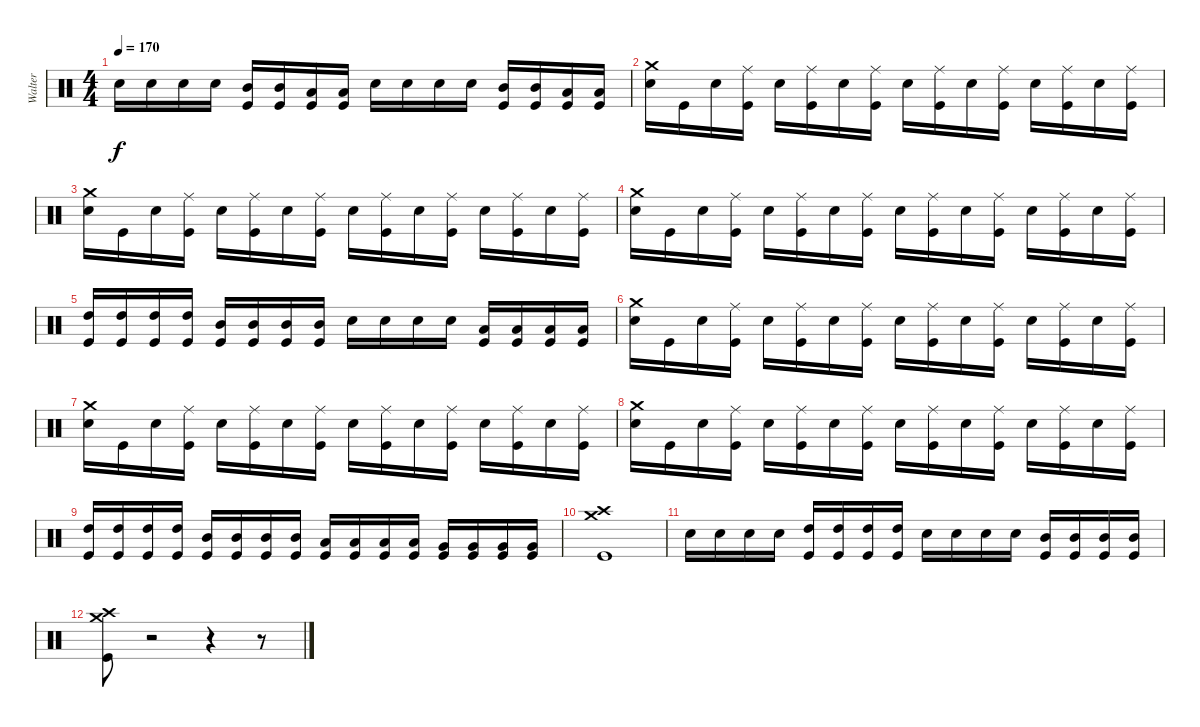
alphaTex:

\track ("Walter" "Walter") {instrument percussion}
\staff {score}
\articulation defaults
\ts (4 4)
\tempo 170
\clef neutral
\ks c "Electric Snare (hit)".16{dy f} "Electric Snare (hit)".16 "Electric Snare (hit)".16 "Electric Snare (hit)".16
("Mid Tom (hit)" "Kick (hit)").16 ("Mid Tom (hit)" "Kick (hit)").16 ("Low Tom (hit)" "Kick (hit)").16 ("Low Tom (hit)" "Kick (hit)").16 "Electric Snare (hit)".16 "Electric Snare (hit)".16 "Electric Snare (hit)".16 "Electric Snare (hit)".16 ("Mid Tom (hit)" "Kick (hit)").16 ("Mid Tom (hit)" "Kick (hit)").16 ("Low Tom (hit)" "Kick (hit)").16 ("Low Tom (hit)" "Kick (hit)").16 |
("Crash medium (hit)" "Electric Snare (hit)").16 "Kick (hit)".16 "Electric Snare (hit)".16 ("Ride (middle)" "Kick (hit)").16 "Electric Snare (hit)".16 ("Ride (middle)" "Kick (hit)").16 "Electric Snare (hit)".16 ("Ride (middle)" "Kick (hit)").16 "Electric Snare (hit)".16 ("Ride (middle)" "Kick (hit)").16 "Electric Snare (hit)".16 ("Ride (middle)" "Kick (hit)").16 "Electric Snare (hit)".16 ("Ride (middle)" "Kick (hit)").16 "Electric Snare (hit)".16 ("Ride (middle)" "Kick (hit)").16 |
("Crash medium (hit)" "Electric Snare (hit)").16 "Kick (hit)".16 "Electric Snare (hit)".16 ("Ride (middle)" "Kick (hit)").16 "Electric Snare (hit)".16 ("Ride (middle)" "Kick (hit)").16 "Electric Snare (hit)".16 ("Ride (middle)" "Kick (hit)").16 "Electric Snare (hit)".16 ("Ride (middle)" "Kick (hit)").16 "Electric Snare (hit)".16 ("Ride (middle)" "Kick (hit)").16 "Electric Snare (hit)".16 ("Ride (middle)" "Kick (hit)").16 "Electric Snare (hit)".16 ("Ride (middle)" "Kick (hit)").16 |
("Crash medium (hit)" "Electric Snare (hit)").16 "Kick (hit)".16 "Electric Snare (hit)".16 ("Ride (middle)" "Kick (hit)").16 "Electric Snare (hit)".16 ("Ride (middle)" "Kick (hit)").16 "Electric Snare (hit)".16 ("Ride (middle)" "Kick (hit)").16 "Electric Snare (hit)".16 ("Ride (middle)" "Kick (hit)").16 "Electric Snare (hit)".16 ("Ride (middle)" "Kick (hit)").16 "Electric Snare (hit)".16 ("Ride (middle)" "Kick (hit)").16 "Electric Snare (hit)".16 ("Ride (middle)" "Kick (hit)").16 |
("High Tom (hit)" "Kick (hit)").16 ("High Tom (hit)" "Kick (hit)").16 ("High Tom (hit)" "Kick (hit)").16 ("High Tom (hit)" "Kick (hit)").16 ("Mid Tom (hit)" "Kick (hit)").16 ("Mid Tom (hit)" "Kick (hit)").16 ("Mid Tom (hit)" "Kick (hit)").16 ("Mid Tom (hit)" "Kick (hit)").16 "Electric Snare (hit)".16 "Electric Snare (hit)".16 "Electric Snare (hit)".16 "Electric Snare (hit)".16 ("Low Tom (hit)" "Kick (hit)").16 ("Low Tom (hit)" "Kick (hit)").16 ("Low Tom (hit)" "Kick (hit)").16 ("Low Tom (hit)" "Kick (hit)").16 |
("Crash medium (hit)" "Electric Snare (hit)").16 "Kick (hit)".16 "Electric Snare (hit)".16 ("Ride (middle)" "Kick (hit)").16 "Electric Snare (hit)".16 ("Ride (middle)" "Kick (hit)").16 "Electric Snare (hit)".16 ("Ride (middle)" "Kick (hit)").16 "Electric Snare (hit)".16 ("Ride (middle)" "Kick (hit)").16 "Electric Snare (hit)".16 ("Ride (middle)" "Kick (hit)").16 "Electric Snare (hit)".16 ("Ride (middle)" "Kick (hit)").16 "Electric Snare (hit)".16 ("Ride (middle)" "Kick (hit)").16 |
("Crash medium (hit)" "Electric Snare (hit)").16 "Kick (hit)".16 "Electric Snare (hit)".16 ("Ride (middle)" "Kick (hit)").16 "Electric Snare (hit)".16 ("Ride (middle)" "Kick (hit)").16 "Electric Snare (hit)".16 ("Ride (middle)" "Kick (hit)").16 "Electric Snare (hit)".16 ("Ride (middle)" "Kick (hit)").16 "Electric Snare (hit)".16 ("Ride (middle)" "Kick (hit)").16 "Electric Snare (hit)".16 ("Ride (middle)" "Kick (hit)").16 "Electric Snare (hit)".16 ("Ride (middle)" "Kick (hit)").16 |
("Crash medium (hit)" "Electric Snare (hit)").16 "Kick (hit)".16 "Electric Snare (hit)".16 ("Ride (middle)" "Kick (hit)").16 "Electric Snare (hit)".16 ("Ride (middle)" "Kick (hit)").16 "Electric Snare (hit)".16 ("Ride (middle)" "Kick (hit)").16 "Electric Snare (hit)".16 ("Ride (middle)" "Kick (hit)").16 "Electric Snare (hit)".16 ("Ride (middle)" "Kick (hit)").16 "Electric Snare (hit)".16 ("Ride (middle)" "Kick (hit)").16 "Electric Snare (hit)".16 ("Ride (middle)" "Kick (hit)").16 |
("High Tom (hit)" "Kick (hit)").16 ("High Tom (hit)" "Kick (hit)").16 ("High Tom (hit)" "Kick (hit)").16 ("High Tom (hit)" "Kick (hit)").16 ("Mid Tom (hit)" "Kick (hit)").16 ("Mid Tom (hit)" "Kick (hit)").16 ("Mid Tom (hit)" "Kick (hit)").16 ("Mid Tom (hit)" "Kick (hit)").16 ("Low Tom (hit)" "Kick (hit)").16 ("Low Tom (hit)" "Kick (hit)").16 ("Low Tom (hit)" "Kick (hit)").16 ("Low Tom (hit)" "Kick (hit)").16 ("Very Low Tom (hit)" "Kick (hit)").16 ("Very Low Tom (hit)" "Kick (hit)").16 ("Very Low Tom (hit)" "Kick (hit)").16 ("Very Low Tom (hit)" "Kick (hit)").16 |
("Crash medium (hit)" "Crash high (hit)" "Kick (hit)").1 |
"Electric Snare (hit)".16 "Electric Snare (hit)".16 "Electric Snare (hit)".16 "Electric Snare (hit)".16 ("High Tom (hit)" "Kick (hit)").16 ("High Tom (hit)" "Kick (hit)").16 ("High Tom (hit)" "Kick (hit)").16 ("High Tom (hit)" "Kick (hit)").16 "Electric Snare (hit)".16 "Electric Snare (hit)".16 "Electric Snare (hit)".16 "Electric Snare (hit)".16 ("Mid Tom (hit)" "Kick (hit)").16 ("Mid Tom (hit)" "Kick (hit)").16 ("Mid Tom (hit)" "Kick (hit)").16 ("Mid Tom (hit)" "Kick (hit)").16 |
("Crash medium (hit)" "Crash high (hit)" "Kick (hit)").8 r.2 r.4 r.8
